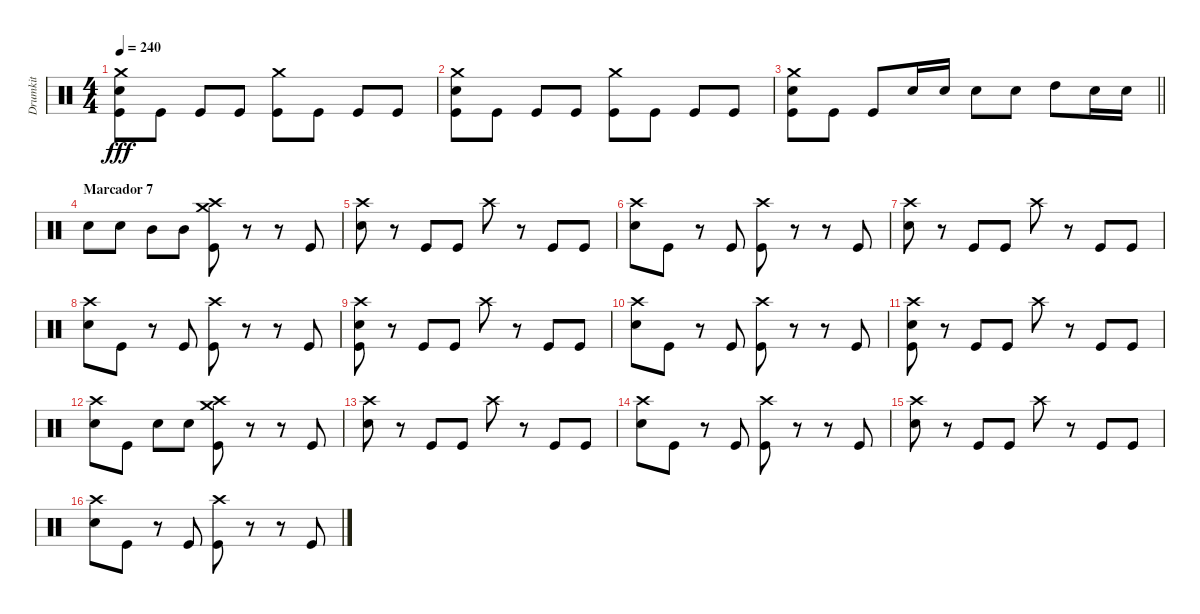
\track ("Drumkit" "Drumkit") {instrument percussion}
\staff {score}
\articulation defaults
\ts (4 4)
\tempo 240
\clef neutral
\ks c
("Crash medium (hit)" "Snare (hit) 2" "Kick (hit)").8{dy fff} "Kick (hit)".8 "Kick (hit)".8 "Kick (hit)".8 ("Crash medium (hit)" "Kick (hit)").8 "Kick (hit)".8 "Kick (hit)".8 "Kick (hit)".8 |
("Crash medium (hit)" "Snare (hit) 2" "Kick (hit)").8 "Kick (hit)".8 "Kick (hit)".8 "Kick (hit)".8 ("Crash medium (hit)" "Kick (hit)").8 "Kick (hit)".8 "Kick (hit)".8 "Kick (hit)".8 |
\barLineRight lightlight
("Crash medium (hit)" "Snare (hit) 2" "Kick (hit)").8 "Kick (hit)".8 "Kick (hit)".8 "Snare (hit) 2".16 "Snare (hit) 2".16 "Snare (hit) 2".8 "Snare (hit) 2".8 "High Tom (hit)".8 "Snare (hit) 2".16 "Snare (hit) 2".16 |
\section ("" "Marcador 7")
"Snare (hit) 2".8 "Snare (hit) 2".8 "Mid Tom (hit)".8 "Mid Tom (hit)".8 ("Crash high (hit)" "Crash medium (hit)" "Kick (hit)").8 r.8 r.8 "Kick (hit)".8 |
("Crash high (hit)" "Snare (hit) 2").8 r.8 "Kick (hit)".8 "Kick (hit)".8 "Crash high (hit)".8 r.8 "Kick (hit)".8 "Kick (hit)".8 |
("Crash high (hit)" "Snare (hit) 2").8 "Kick (hit)".8 r.8 "Kick (hit)".8 ("Crash high (hit)" "Kick (hit)").8 r.8 r.8 "Kick (hit)".8 |
("Crash high (hit)" "Snare (hit) 2").8 r.8 "Kick (hit)".8 "Kick (hit)".8 "Crash high (hit)".8 r.8 "Kick (hit)".8 "Kick (hit)".8 |
("Crash high (hit)" "Snare (hit) 2").8 "Kick (hit)".8 r.8 "Kick (hit)".8 ("Crash high (hit)" "Kick (hit)").8 r.8 r.8 "Kick (hit)".8 |
("Crash high (hit)" "Snare (hit) 2" "Kick (hit)").8 r.8 "Kick (hit)".8 "Kick (hit)".8 "Crash high (hit)".8 r.8 "Kick (hit)".8 "Kick (hit)".8 |
("Crash high (hit)" "Snare (hit) 2").8 "Kick (hit)".8 r.8 "Kick (hit)".8 ("Crash high (hit)" "Kick (hit)").8 r.8 r.8 "Kick (hit)".8 |
("Crash high (hit)" "Snare (hit) 2" "Kick (hit)").8 r.8 "Kick (hit)".8 "Kick (hit)".8 "Crash high (hit)".8 r.8 "Kick (hit)".8 "Kick (hit)".8 |
("Crash high (hit)" "Snare (hit) 2").8 "Kick (hit)".8 "Snare (hit) 2".8 "Snare (hit) 2".8 ("Crash high (hit)" "Crash medium (hit)" "Kick (hit)").8 r.8 r.8 "Kick (hit)".8 |
("Crash high (hit)" "Snare (hit) 2").8 r.8 "Kick (hit)".8 "Kick (hit)".8 "Crash high (hit)".8 r.8 "Kick (hit)".8 "Kick (hit)".8 |
("Crash high (hit)" "Snare (hit) 2").8 "Kick (hit)".8 r.8 "Kick (hit)".8 ("Crash high (hit)" "Kick (hit)").8 r.8 r.8 "Kick (hit)".8 |
("Crash high (hit)" "Snare (hit) 2").8 r.8 "Kick (hit)".8 "Kick (hit)".8 "Crash high (hit)".8 r.8 "Kick (hit)".8 "Kick (hit)".8 |
("Crash high (hit)" "Snare (hit) 2").8 "Kick (hit)".8 r.8 "Kick (hit)".8 ("Crash high (hit)" "Kick (hit)").8 r.8 r.8 "Kick (hit)".8
